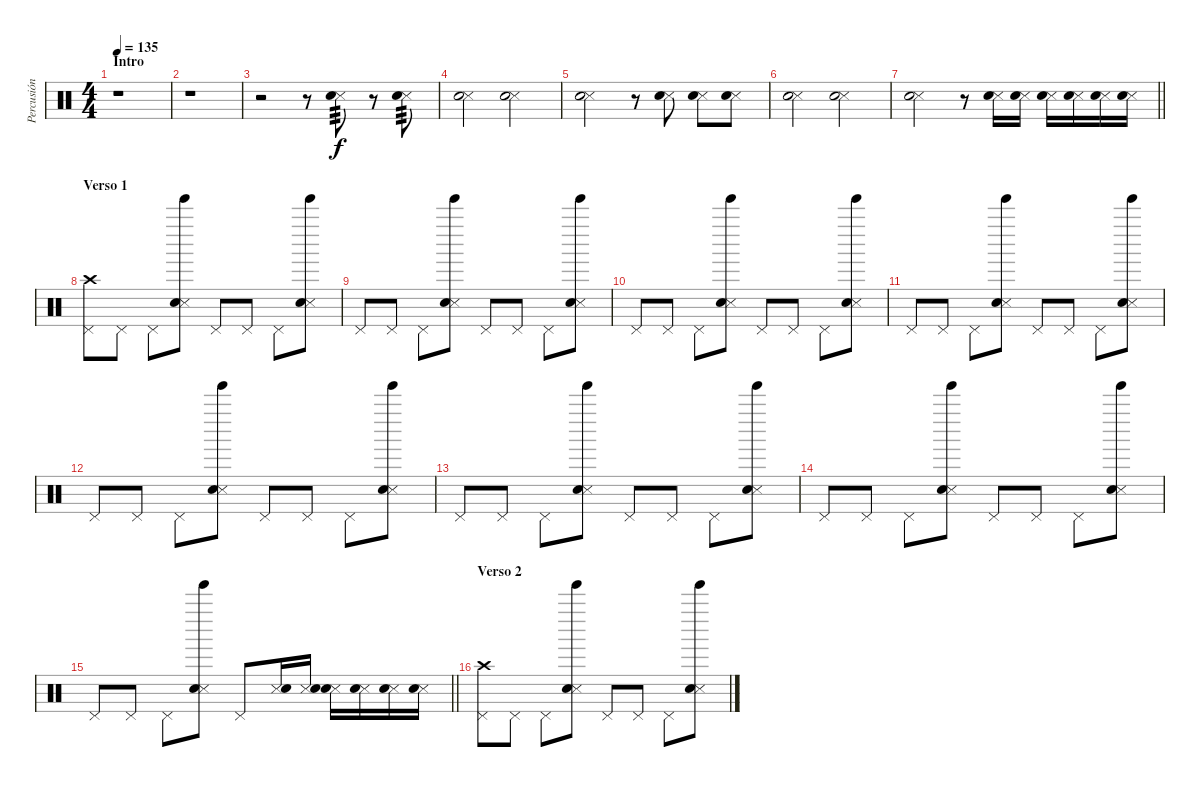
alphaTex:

\track ("Percusión" "Percusión") {instrument percussion}
\staff {score}
\articulation defaults
\ts (4 4)
\section ("" "Intro")
\tempo 135
\clef neutral
\ks c
r.1{dy f} |
r.1 |
r.2 r.8 ("Snare (side stick) 3" "Snare (hit) 2").8{tp 3} r.8 ("Snare (side stick) 3" "Snare (hit) 2").8{tp 3} |
("Snare (side stick) 3" "Snare (hit) 2").2 ("Snare (side stick) 3" "Snare (hit) 2").2 |
("Snare (side stick) 3" "Snare (hit) 2").2 r.8 ("Snare (side stick) 3" "Snare (hit) 2").8 ("Snare (side stick) 3" "Snare (hit) 2").8 ("Snare (side stick) 3" "Snare (hit) 2").8 |
("Snare (side stick) 3" "Snare (hit) 2").2 ("Snare (side stick) 3" "Snare (hit) 2").2 |
\barLineRight lightlight
("Snare (side stick) 3" "Snare (hit) 2").2 r.8 ("Snare (side stick) 3" "Snare (hit) 2").16 ("Snare (side stick) 3" "Snare (hit) 2").16 ("Snare (side stick) 3" "Snare (hit) 2").16 ("Snare (side stick) 3" "Snare (hit) 2").16 ("Snare (side stick) 3" "Snare (hit) 2").16 ("Snare (side stick) 3" "Snare (hit) 2").16 |
\section ("" "Verso 1")
("Crash high (hit)" "Pedal Hi-Hat (hit)").8 "Pedal Hi-Hat (hit)".8 "Pedal Hi-Hat (hit)".8 ("Tinkle Bell (hit)" "Snare (side stick) 3" "Snare (hit) 2").8 "Pedal Hi-Hat (hit)".8 "Pedal Hi-Hat (hit)".8 "Pedal Hi-Hat (hit)".8 ("Tinkle Bell (hit)" "Snare (side stick) 3" "Snare (hit) 2").8 |
"Pedal Hi-Hat (hit)".8 "Pedal Hi-Hat (hit)".8 "Pedal Hi-Hat (hit)".8 ("Tinkle Bell (hit)" "Snare (side stick) 3" "Snare (hit) 2").8 "Pedal Hi-Hat (hit)".8 "Pedal Hi-Hat (hit)".8 "Pedal Hi-Hat (hit)".8 ("Tinkle Bell (hit)" "Snare (side stick) 3" "Snare (hit) 2").8 |
"Pedal Hi-Hat (hit)".8 "Pedal Hi-Hat (hit)".8 "Pedal Hi-Hat (hit)".8 ("Tinkle Bell (hit)" "Snare (side stick) 3" "Snare (hit) 2").8 "Pedal Hi-Hat (hit)".8 "Pedal Hi-Hat (hit)".8 "Pedal Hi-Hat (hit)".8 ("Tinkle Bell (hit)" "Snare (side stick) 3" "Snare (hit) 2").8 |
"Pedal Hi-Hat (hit)".8 "Pedal Hi-Hat (hit)".8 "Pedal Hi-Hat (hit)".8 ("Tinkle Bell (hit)" "Snare (side stick) 3" "Snare (hit) 2").8 "Pedal Hi-Hat (hit)".8 "Pedal Hi-Hat (hit)".8 "Pedal Hi-Hat (hit)".8 ("Tinkle Bell (hit)" "Snare (side stick) 3" "Snare (hit) 2").8 |
"Pedal Hi-Hat (hit)".8 "Pedal Hi-Hat (hit)".8 "Pedal Hi-Hat (hit)".8 ("Tinkle Bell (hit)" "Snare (side stick) 3" "Snare (hit) 2").8 "Pedal Hi-Hat (hit)".8 "Pedal Hi-Hat (hit)".8 "Pedal Hi-Hat (hit)".8 ("Tinkle Bell (hit)" "Snare (side stick) 3" "Snare (hit) 2").8 |
"Pedal Hi-Hat (hit)".8 "Pedal Hi-Hat (hit)".8 "Pedal Hi-Hat (hit)".8 ("Tinkle Bell (hit)" "Snare (side stick) 3" "Snare (hit) 2").8 "Pedal Hi-Hat (hit)".8 "Pedal Hi-Hat (hit)".8 "Pedal Hi-Hat (hit)".8 ("Tinkle Bell (hit)" "Snare (side stick) 3" "Snare (hit) 2").8 |
"Pedal Hi-Hat (hit)".8 "Pedal Hi-Hat (hit)".8 "Pedal Hi-Hat (hit)".8 ("Tinkle Bell (hit)" "Snare (side stick) 3" "Snare (hit) 2").8 "Pedal Hi-Hat (hit)".8 "Pedal Hi-Hat (hit)".8 "Pedal Hi-Hat (hit)".8 ("Tinkle Bell (hit)" "Snare (side stick) 3" "Snare (hit) 2").8 |
\barLineRight lightlight "Pedal Hi-Hat (hit)".8 "Pedal Hi-Hat (hit)".8 "Pedal Hi-Hat (hit)".8
("Tinkle Bell (hit)" "Snare (side stick) 3" "Snare (hit) 2").8 "Pedal Hi-Hat (hit)".8 ("Snare (side stick) 3" "Snare (hit) 2").16 ("Snare (side stick) 3" "Snare (hit) 2").16 ("Snare (side stick) 3" "Snare (hit) 2").16 ("Snare (side stick) 3" "Snare (hit) 2").16 ("Snare (side stick) 3" "Snare (hit) 2").16 ("Snare (side stick) 3" "Snare (hit) 2").16 |
\section ("" "Verso 2")
("Crash high (hit)" "Pedal Hi-Hat (hit)").8 "Pedal Hi-Hat (hit)".8 "Pedal Hi-Hat (hit)".8 ("Tinkle Bell (hit)" "Snare (side stick) 3" "Snare (hit) 2").8 "Pedal Hi-Hat (hit)".8 "Pedal Hi-Hat (hit)".8 "Pedal Hi-Hat (hit)".8 ("Tinkle Bell (hit)" "Snare (side stick) 3" "Snare (hit) 2").8
